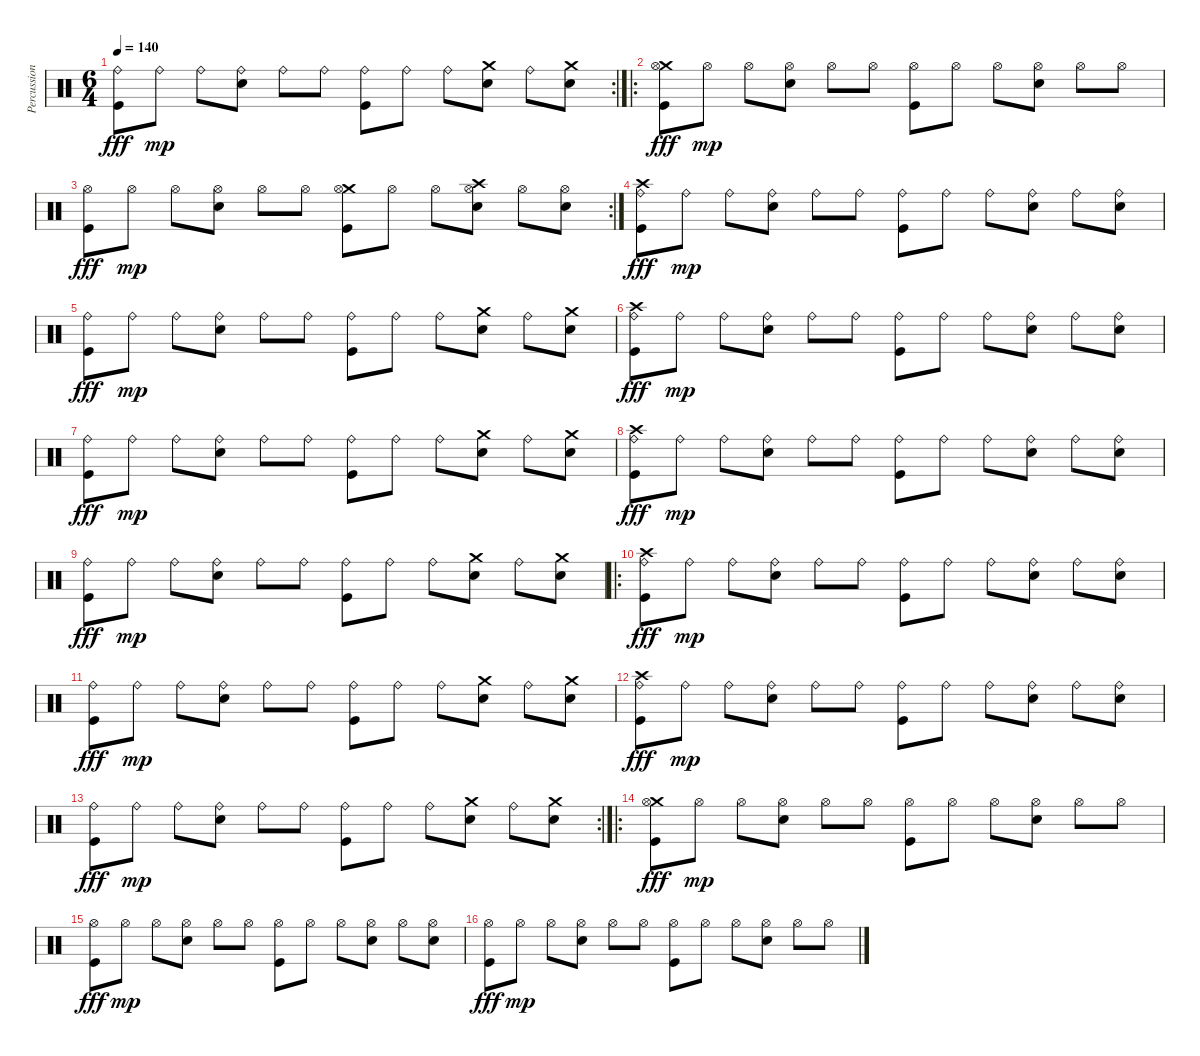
\track ("Percussion" "Percussion") {instrument percussion}
\staff {score}
\articulation defaults
\rc 2
\ts (6 4)
\tempo 140
\clef neutral
\ks c
("Ride (bell)" "Kick (hit)").8{dy fff} "Ride (bell)".8{dy mp} "Ride (bell)".8 ("Ride (bell)" "Snare (hit) 2").8 "Ride (bell)".8 "Ride (bell)".8 ("Ride (bell)" "Kick (hit)").8 "Ride (bell)".8 "Ride (bell)".8 ("Crash medium (hit)" "Snare (hit) 2").8 "Ride (bell)".8 ("Crash medium (hit)" "Snare (hit) 2").8 |
\ro
("Crash medium (hit)" "Hi-Hat (open)" "Kick (hit)").8{dy fff} "Hi-Hat (open)".8{dy mp} "Hi-Hat (open)".8 ("Hi-Hat (open)" "Snare (hit) 2").8 "Hi-Hat (open)".8 "Hi-Hat (open)".8 ("Hi-Hat (open)" "Kick (hit)").8 "Hi-Hat (open)".8 "Hi-Hat (open)".8 ("Hi-Hat (open)" "Snare (hit) 2").8 "Hi-Hat (open)".8 "Hi-Hat (open)".8 |
\rc 2
("Hi-Hat (open)" "Kick (hit)").8{dy fff} "Hi-Hat (open)".8{dy mp} "Hi-Hat (open)".8 ("Hi-Hat (open)" "Snare (hit) 2").8 "Hi-Hat (open)".8 "Hi-Hat (open)".8 ("Crash medium (hit)" "Hi-Hat (open)" "Kick (hit)").8 "Hi-Hat (open)".8 "Hi-Hat (open)".8 ("Crash high (hit)" "Hi-Hat (open)" "Snare (hit) 2").8 "Hi-Hat (open)".8 ("Hi-Hat (open)" "Snare (hit) 2").8 |
("Crash high (hit)" "Ride (bell)" "Kick (hit)").8{dy fff} "Ride (bell)".8{dy mp} "Ride (bell)".8 ("Ride (bell)" "Snare (hit) 2").8 "Ride (bell)".8 "Ride (bell)".8 ("Ride (bell)" "Kick (hit)").8 "Ride (bell)".8 "Ride (bell)".8 ("Ride (bell)" "Snare (hit) 2").8 "Ride (bell)".8 ("Ride (bell)" "Snare (hit) 2").8 |
("Ride (bell)" "Kick (hit)").8{dy fff} "Ride (bell)".8{dy mp} "Ride (bell)".8 ("Ride (bell)" "Snare (hit) 2").8 "Ride (bell)".8 "Ride (bell)".8 ("Ride (bell)" "Kick (hit)").8 "Ride (bell)".8 "Ride (bell)".8 ("Crash medium (hit)" "Snare (hit) 2").8 "Ride (bell)".8 ("Crash medium (hit)" "Snare (hit) 2").8 |
("Crash high (hit)" "Ride (bell)" "Kick (hit)").8{dy fff} "Ride (bell)".8{dy mp} "Ride (bell)".8 ("Ride (bell)" "Snare (hit) 2").8 "Ride (bell)".8 "Ride (bell)".8 ("Ride (bell)" "Kick (hit)").8 "Ride (bell)".8 "Ride (bell)".8 ("Ride (bell)" "Snare (hit) 2").8 "Ride (bell)".8 ("Ride (bell)" "Snare (hit) 2").8 |
("Ride (bell)" "Kick (hit)").8{dy fff} "Ride (bell)".8{dy mp} "Ride (bell)".8 ("Ride (bell)" "Snare (hit) 2").8 "Ride (bell)".8 "Ride (bell)".8 ("Ride (bell)" "Kick (hit)").8 "Ride (bell)".8 "Ride (bell)".8 ("Crash medium (hit)" "Snare (hit) 2").8 "Ride (bell)".8 ("Crash medium (hit)" "Snare (hit) 2").8 |
("Crash high (hit)" "Ride (bell)" "Kick (hit)").8{dy fff} "Ride (bell)".8{dy mp} "Ride (bell)".8 ("Ride (bell)" "Snare (hit) 2").8 "Ride (bell)".8 "Ride (bell)".8 ("Ride (bell)" "Kick (hit)").8 "Ride (bell)".8 "Ride (bell)".8 ("Ride (bell)" "Snare (hit) 2").8 "Ride (bell)".8 ("Ride (bell)" "Snare (hit) 2").8 |
("Ride (bell)" "Kick (hit)").8{dy fff} "Ride (bell)".8{dy mp} "Ride (bell)".8 ("Ride (bell)" "Snare (hit) 2").8 "Ride (bell)".8 "Ride (bell)".8 ("Ride (bell)" "Kick (hit)").8 "Ride (bell)".8 "Ride (bell)".8 ("Crash medium (hit)" "Snare (hit) 2").8 "Ride (bell)".8 ("Crash medium (hit)" "Snare (hit) 2").8 |
\ro
("Crash high (hit)" "Ride (bell)" "Kick (hit)").8{dy fff} "Ride (bell)".8{dy mp} "Ride (bell)".8 ("Ride (bell)" "Snare (hit) 2").8 "Ride (bell)".8 "Ride (bell)".8 ("Ride (bell)" "Kick (hit)").8 "Ride (bell)".8 "Ride (bell)".8 ("Ride (bell)" "Snare (hit) 2").8 "Ride (bell)".8 ("Ride (bell)" "Snare (hit) 2").8 |
("Ride (bell)" "Kick (hit)").8{dy fff} "Ride (bell)".8{dy mp} "Ride (bell)".8 ("Ride (bell)" "Snare (hit) 2").8 "Ride (bell)".8 "Ride (bell)".8 ("Ride (bell)" "Kick (hit)").8 "Ride (bell)".8 "Ride (bell)".8 ("Crash medium (hit)" "Snare (hit) 2").8 "Ride (bell)".8 ("Crash medium (hit)" "Snare (hit) 2").8 |
("Crash high (hit)" "Ride (bell)" "Kick (hit)").8{dy fff} "Ride (bell)".8{dy mp} "Ride (bell)".8 ("Ride (bell)" "Snare (hit) 2").8 "Ride (bell)".8 "Ride (bell)".8 ("Ride (bell)" "Kick (hit)").8 "Ride (bell)".8 "Ride (bell)".8 ("Ride (bell)" "Snare (hit) 2").8 "Ride (bell)".8 ("Ride (bell)" "Snare (hit) 2").8 |
\rc 2
("Ride (bell)" "Kick (hit)").8{dy fff} "Ride (bell)".8{dy mp} "Ride (bell)".8 ("Ride (bell)" "Snare (hit) 2").8 "Ride (bell)".8 "Ride (bell)".8 ("Ride (bell)" "Kick (hit)").8 "Ride (bell)".8 "Ride (bell)".8 ("Crash medium (hit)" "Snare (hit) 2").8 "Ride (bell)".8 ("Crash medium (hit)" "Snare (hit) 2").8 |
\ro
("Crash medium (hit)" "Hi-Hat (open)" "Kick (hit)").8{dy fff} "Hi-Hat (open)".8{dy mp} "Hi-Hat (open)".8 ("Hi-Hat (open)" "Snare (hit) 2").8 "Hi-Hat (open)".8 "Hi-Hat (open)".8 ("Hi-Hat (open)" "Kick (hit)").8 "Hi-Hat (open)".8 "Hi-Hat (open)".8 ("Hi-Hat (open)" "Snare (hit) 2").8 "Hi-Hat (open)".8 "Hi-Hat (open)".8 |
("Hi-Hat (open)" "Kick (hit)").8{dy fff} "Hi-Hat (open)".8{dy mp} "Hi-Hat (open)".8 ("Hi-Hat (open)" "Snare (hit) 2").8 "Hi-Hat (open)".8 "Hi-Hat (open)".8 ("Hi-Hat (open)" "Kick (hit)").8 "Hi-Hat (open)".8 "Hi-Hat (open)".8 ("Hi-Hat (open)" "Snare (hit) 2").8 "Hi-Hat (open)".8 ("Hi-Hat (open)" "Snare (hit) 2").8 |
("Hi-Hat (open)" "Kick (hit)").8{dy fff} "Hi-Hat (open)".8{dy mp} "Hi-Hat (open)".8 ("Hi-Hat (open)" "Snare (hit) 2").8 "Hi-Hat (open)".8 "Hi-Hat (open)".8 ("Hi-Hat (open)" "Kick (hit)").8 "Hi-Hat (open)".8 "Hi-Hat (open)".8 ("Hi-Hat (open)" "Snare (hit) 2").8 "Hi-Hat (open)".8 "Hi-Hat (open)".8
